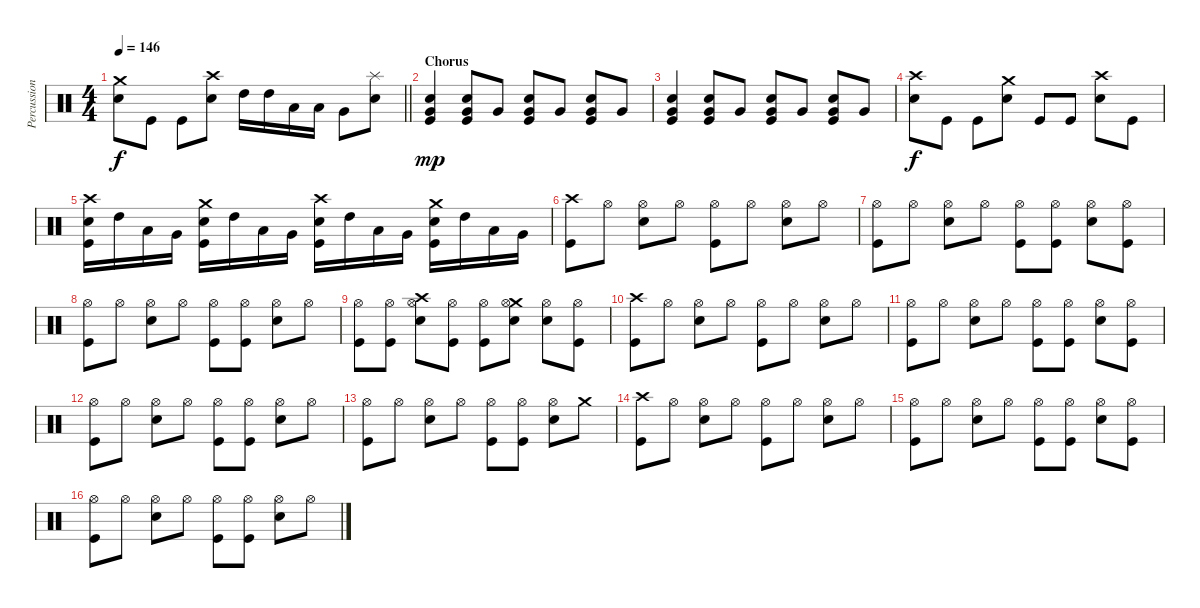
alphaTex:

\track ("Percussion" "Percussion") {instrument percussion}
\staff {score}
\articulation defaults
\ts (4 4)
\tempo 146
\clef neutral
\barLineRight lightlight
\ks c
("Crash medium (hit)" "Snare (hit) 2").8{dy f} "Kick (hit)".8 "Kick (hit)".8 ("Crash high (hit)" "Snare (hit) 2").8 "High Tom (hit)".16 "High Tom (hit)".16 "Low Tom (hit)".16 "Low Tom (hit)".16 "Very Low Tom (hit)".8 ("Splash (hit)" "Snare (hit) 2").8 |
\section ("" "Chorus")
("Snare (hit) 2" "Very Low Tom (hit)" "Kick (hit)").4{dy mp} ("Snare (hit) 2" "Very Low Tom (hit)" "Kick (hit)").8 "Very Low Tom (hit)".8 ("Snare (hit) 2" "Very Low Tom (hit)" "Kick (hit)").8 "Very Low Tom (hit)".8 ("Snare (hit) 2" "Very Low Tom (hit)" "Kick (hit)").8 "Very Low Tom (hit)".8 |
("Snare (hit) 2" "Very Low Tom (hit)" "Kick (hit)").4 ("Snare (hit) 2" "Very Low Tom (hit)" "Kick (hit)").8 "Very Low Tom (hit)".8 ("Snare (hit) 2" "Very Low Tom (hit)" "Kick (hit)").8 "Very Low Tom (hit)".8 ("Snare (hit) 2" "Very Low Tom (hit)" "Kick (hit)").8 "Very Low Tom (hit)".8 |
("Crash high (hit)" "Snare (hit) 2").8{dy f} "Kick (hit)".8 "Kick (hit)".8 ("Crash medium (hit)" "Snare (hit) 2").8 "Kick (hit)".8 "Kick (hit)".8 ("Crash high (hit)" "Snare (hit) 2").8 "Kick (hit)".8 |
("Crash high (hit)" "Snare (hit) 2" "Kick (hit)").16 "High Tom (hit)".16 "Low Tom (hit)".16 "Very Low Tom (hit)".16 ("Crash medium (hit)" "Snare (hit) 2" "Kick (hit)").16 "High Tom (hit)".16 "Low Tom (hit)".16 "Very Low Tom (hit)".16 ("Crash high (hit)" "Snare (hit) 2" "Kick (hit)").16 "High Tom (hit)".16 "Low Tom (hit)".16 "Very Low Tom (hit)".16 ("Crash medium (hit)" "Snare (hit) 2" "Kick (hit)").16 "High Tom (hit)".16 "Low Tom (hit)".16 "Very Low Tom (hit)".16 |
("Crash high (hit)" "Kick (hit)").8 "Hi-Hat (open)".8 ("Hi-Hat (open)" "Snare (hit) 2").8 "Hi-Hat (open)".8 ("Hi-Hat (open)" "Kick (hit)").8 "Hi-Hat (open)".8 ("Hi-Hat (open)" "Snare (hit) 2").8 "Hi-Hat (open)".8 |
("Hi-Hat (open)" "Kick (hit)").8 "Hi-Hat (open)".8 ("Hi-Hat (open)" "Snare (hit) 2").8 "Hi-Hat (open)".8 ("Hi-Hat (open)" "Kick (hit)").8 ("Hi-Hat (open)" "Kick (hit)").8 ("Hi-Hat (open)" "Snare (hit) 2").8 ("Hi-Hat (open)" "Kick (hit)").8 |
("Hi-Hat (open)" "Kick (hit)").8 "Hi-Hat (open)".8 ("Hi-Hat (open)" "Snare (hit) 2").8 "Hi-Hat (open)".8 ("Hi-Hat (open)" "Kick (hit)").8 ("Hi-Hat (open)" "Kick (hit)").8 ("Hi-Hat (open)" "Snare (hit) 2").8 "Hi-Hat (open)".8 |
("Hi-Hat (open)" "Kick (hit)").8 ("Hi-Hat (open)" "Kick (hit)").8 ("Crash high (hit)" "Hi-Hat (open)" "Snare (hit) 2").8 ("Hi-Hat (open)" "Kick (hit)").8 ("Hi-Hat (open)" "Kick (hit)").8 ("Crash medium (hit)" "Hi-Hat (open)" "Snare (hit) 2").8 ("Hi-Hat (open)" "Snare (hit) 2").8 ("Hi-Hat (open)" "Kick (hit)").8 |
("Crash high (hit)" "Kick (hit)").8 "Hi-Hat (open)".8 ("Hi-Hat (open)" "Snare (hit) 2").8 "Hi-Hat (open)".8 ("Hi-Hat (open)" "Kick (hit)").8 "Hi-Hat (open)".8 ("Hi-Hat (open)" "Snare (hit) 2").8 "Hi-Hat (open)".8 |
("Hi-Hat (open)" "Kick (hit)").8 "Hi-Hat (open)".8 ("Hi-Hat (open)" "Snare (hit) 2").8 "Hi-Hat (open)".8 ("Hi-Hat (open)" "Kick (hit)").8 ("Hi-Hat (open)" "Kick (hit)").8 ("Hi-Hat (open)" "Snare (hit) 2").8 ("Hi-Hat (open)" "Kick (hit)").8 |
("Hi-Hat (open)" "Kick (hit)").8 "Hi-Hat (open)".8 ("Hi-Hat (open)" "Snare (hit) 2").8 "Hi-Hat (open)".8 ("Hi-Hat (open)" "Kick (hit)").8 ("Hi-Hat (open)" "Kick (hit)").8 ("Hi-Hat (open)" "Snare (hit) 2").8 "Hi-Hat (open)".8 |
("Hi-Hat (open)" "Kick (hit)").8 "Hi-Hat (open)".8 ("Hi-Hat (open)" "Snare (hit) 2").8 "Hi-Hat (open)".8 ("Hi-Hat (open)" "Kick (hit)").8 ("Hi-Hat (open)" "Kick (hit)").8 ("Hi-Hat (open)" "Snare (hit) 2").8 "Crash medium (hit)".8 |
("Crash high (hit)" "Kick (hit)").8 "Hi-Hat (open)".8 ("Hi-Hat (open)" "Snare (hit) 2").8 "Hi-Hat (open)".8 ("Hi-Hat (open)" "Kick (hit)").8 "Hi-Hat (open)".8 ("Hi-Hat (open)" "Snare (hit) 2").8 "Hi-Hat (open)".8 |
("Hi-Hat (open)" "Kick (hit)").8 "Hi-Hat (open)".8 ("Hi-Hat (open)" "Snare (hit) 2").8 "Hi-Hat (open)".8 ("Hi-Hat (open)" "Kick (hit)").8 ("Hi-Hat (open)" "Kick (hit)").8 ("Hi-Hat (open)" "Snare (hit) 2").8 ("Hi-Hat (open)" "Kick (hit)").8 |
("Hi-Hat (open)" "Kick (hit)").8 "Hi-Hat (open)".8 ("Hi-Hat (open)" "Snare (hit) 2").8 "Hi-Hat (open)".8 ("Hi-Hat (open)" "Kick (hit)").8 ("Hi-Hat (open)" "Kick (hit)").8 ("Hi-Hat (open)" "Snare (hit) 2").8 "Hi-Hat (open)".8
